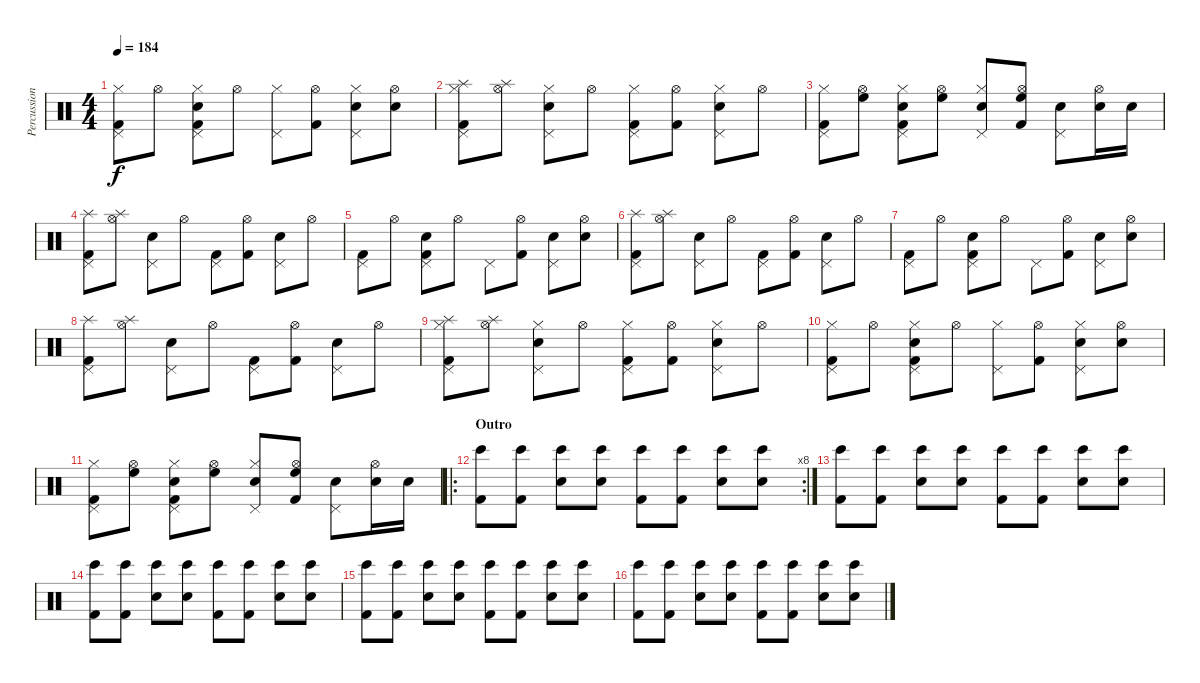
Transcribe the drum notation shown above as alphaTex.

\track ("Percussion" "Percussion") {instrument percussion}
\staff {score}
\articulation defaults
\ts (4 4)
\tempo 184
\clef neutral
\ks c
("Pedal Hi-Hat (hit)" "Hi-Hat (closed)" "Kick (hit) 2").8{dy f} "Hi-Hat (open)".8 ("Pedal Hi-Hat (hit)" "Hi-Hat (closed)" "Snare (hit) 2" "Kick (hit) 2").8 "Hi-Hat (open)".8 ("Pedal Hi-Hat (hit)" "Hi-Hat (closed)").8 ("Hi-Hat (open)" "Kick (hit) 2").8 ("Pedal Hi-Hat (hit)" "Hi-Hat (closed)" "Snare (hit) 2").8 ("Hi-Hat (open)" "Snare (hit) 2").8 |
("Pedal Hi-Hat (hit)" "Hi-Hat (closed)" "Splash (hit)" "Kick (hit) 2").8 ("Hi-Hat (open)" "Splash (hit)").8 ("Pedal Hi-Hat (hit)" "Hi-Hat (closed)" "Snare (hit) 2").8 "Hi-Hat (open)".8 ("Pedal Hi-Hat (hit)" "Hi-Hat (closed)" "Kick (hit) 2").8 ("Hi-Hat (open)" "Kick (hit) 2").8 ("Pedal Hi-Hat (hit)" "Hi-Hat (closed)" "Snare (hit) 2").8 "Hi-Hat (open)".8 |
("Pedal Hi-Hat (hit)" "Hi-Hat (closed)" "Kick (hit) 2").8 ("Hi-Hat (open)" "High Floor Tom (hit)").8 ("Pedal Hi-Hat (hit)" "Hi-Hat (closed)" "Snare (hit) 2" "Kick (hit) 2").8 ("Hi-Hat (open)" "High Floor Tom (hit)").8 ("Pedal Hi-Hat (hit)" "Hi-Hat (closed)" "Snare (hit) 2").8 ("Hi-Hat (open)" "High Floor Tom (hit)" "Kick (hit) 2").8 ("Pedal Hi-Hat (hit)" "Snare (hit) 2").8 ("Hi-Hat (open)" "Snare (hit) 2").16 "Snare (hit) 2".16 |
("Pedal Hi-Hat (hit)" "Splash (hit)" "Kick (hit) 2").8 ("Hi-Hat (open)" "Splash (hit)").8 ("Pedal Hi-Hat (hit)" "Snare (hit) 2").8 "Hi-Hat (open)".8 ("Pedal Hi-Hat (hit)" "Kick (hit) 2").8 ("Hi-Hat (open)" "Kick (hit) 2").8 ("Pedal Hi-Hat (hit)" "Snare (hit) 2").8 "Hi-Hat (open)".8 |
("Pedal Hi-Hat (hit)" "Kick (hit) 2").8 "Hi-Hat (open)".8 ("Pedal Hi-Hat (hit)" "Snare (hit) 2" "Kick (hit) 2").8 "Hi-Hat (open)".8 "Pedal Hi-Hat (hit)".8 ("Hi-Hat (open)" "Kick (hit) 2").8 ("Pedal Hi-Hat (hit)" "Snare (hit) 2").8 ("Hi-Hat (open)" "Snare (hit) 2").8 |
("Pedal Hi-Hat (hit)" "Splash (hit)" "Kick (hit) 2").8 ("Hi-Hat (open)" "Splash (hit)").8 ("Pedal Hi-Hat (hit)" "Snare (hit) 2").8 "Hi-Hat (open)".8 ("Pedal Hi-Hat (hit)" "Kick (hit) 2").8 ("Hi-Hat (open)" "Kick (hit) 2").8 ("Pedal Hi-Hat (hit)" "Snare (hit) 2").8 "Hi-Hat (open)".8 |
("Pedal Hi-Hat (hit)" "Kick (hit) 2").8 "Hi-Hat (open)".8 ("Pedal Hi-Hat (hit)" "Snare (hit) 2" "Kick (hit) 2").8 "Hi-Hat (open)".8 "Pedal Hi-Hat (hit)".8 ("Hi-Hat (open)" "Kick (hit) 2").8 ("Pedal Hi-Hat (hit)" "Snare (hit) 2").8 ("Hi-Hat (open)" "Snare (hit) 2").8 |
("Pedal Hi-Hat (hit)" "Splash (hit)" "Kick (hit) 2").8 ("Hi-Hat (open)" "Splash (hit)").8 ("Pedal Hi-Hat (hit)" "Snare (hit) 2").8 "Hi-Hat (open)".8 ("Pedal Hi-Hat (hit)" "Kick (hit) 2").8 ("Hi-Hat (open)" "Kick (hit) 2").8 ("Pedal Hi-Hat (hit)" "Snare (hit) 2").8 "Hi-Hat (open)".8 |
("Pedal Hi-Hat (hit)" "Hi-Hat (closed)" "Splash (hit)" "Kick (hit) 2").8 ("Hi-Hat (open)" "Splash (hit)").8 ("Pedal Hi-Hat (hit)" "Hi-Hat (closed)" "Snare (hit) 2").8 "Hi-Hat (open)".8 ("Pedal Hi-Hat (hit)" "Hi-Hat (closed)" "Kick (hit) 2").8 ("Hi-Hat (open)" "Kick (hit) 2").8 ("Pedal Hi-Hat (hit)" "Hi-Hat (closed)" "Snare (hit) 2").8 "Hi-Hat (open)".8 |
("Pedal Hi-Hat (hit)" "Hi-Hat (closed)" "Kick (hit) 2").8 "Hi-Hat (open)".8 ("Pedal Hi-Hat (hit)" "Hi-Hat (closed)" "Snare (hit) 2" "Kick (hit) 2").8 "Hi-Hat (open)".8 ("Pedal Hi-Hat (hit)" "Hi-Hat (closed)").8 ("Hi-Hat (open)" "Kick (hit) 2").8 ("Pedal Hi-Hat (hit)" "Hi-Hat (closed)" "Snare (hit) 2").8 ("Hi-Hat (open)" "Snare (hit) 2").8 |
("Pedal Hi-Hat (hit)" "Hi-Hat (closed)" "Kick (hit) 2").8 ("Hi-Hat (open)" "High Floor Tom (hit)").8 ("Pedal Hi-Hat (hit)" "Hi-Hat (closed)" "Snare (hit) 2" "Kick (hit) 2").8 ("Hi-Hat (open)" "High Floor Tom (hit)").8 ("Pedal Hi-Hat (hit)" "Hi-Hat (closed)" "Snare (hit) 2").8 ("Hi-Hat (open)" "High Floor Tom (hit)" "Kick (hit) 2").8 ("Pedal Hi-Hat (hit)" "Snare (hit) 2").8 ("Hi-Hat (open)" "Snare (hit) 2").16 "Snare (hit) 2".16 |
\ro
\rc 8
\section ("" "Outro")
("Bongo High (hit)" "Kick (hit) 2").8 ("Bongo High (hit)" "Kick (hit) 2").8 ("Bongo High (hit)" "Snare (hit) 2").8 ("Bongo High (hit)" "Snare (hit) 2").8 ("Bongo High (hit)" "Kick (hit) 2").8 ("Bongo High (hit)" "Kick (hit) 2").8 ("Bongo High (hit)" "Snare (hit) 2").8 ("Bongo High (hit)" "Snare (hit) 2").8 |
("Bongo High (hit)" "Kick (hit) 2").8 ("Bongo High (hit)" "Kick (hit) 2").8 ("Bongo High (hit)" "Snare (hit) 2").8 ("Bongo High (hit)" "Snare (hit) 2").8 ("Bongo High (hit)" "Kick (hit) 2").8 ("Bongo High (hit)" "Kick (hit) 2").8 ("Bongo High (hit)" "Snare (hit) 2").8 ("Bongo High (hit)" "Snare (hit) 2").8 |
("Bongo High (hit)" "Kick (hit) 2").8 ("Bongo High (hit)" "Kick (hit) 2").8 ("Bongo High (hit)" "Snare (hit) 2").8 ("Bongo High (hit)" "Snare (hit) 2").8 ("Bongo High (hit)" "Kick (hit) 2").8 ("Bongo High (hit)" "Kick (hit) 2").8 ("Bongo High (hit)" "Snare (hit) 2").8 ("Bongo High (hit)" "Snare (hit) 2").8 |
("Bongo High (hit)" "Kick (hit) 2").8 ("Bongo High (hit)" "Kick (hit) 2").8 ("Bongo High (hit)" "Snare (hit) 2").8 ("Bongo High (hit)" "Snare (hit) 2").8 ("Bongo High (hit)" "Kick (hit) 2").8 ("Bongo High (hit)" "Kick (hit) 2").8 ("Bongo High (hit)" "Snare (hit) 2").8 ("Bongo High (hit)" "Snare (hit) 2").8 |
("Bongo High (hit)" "Kick (hit) 2").8 ("Bongo High (hit)" "Kick (hit) 2").8 ("Bongo High (hit)" "Snare (hit) 2").8 ("Bongo High (hit)" "Snare (hit) 2").8 ("Bongo High (hit)" "Kick (hit) 2").8 ("Bongo High (hit)" "Kick (hit) 2").8 ("Bongo High (hit)" "Snare (hit) 2").8 ("Bongo High (hit)" "Snare (hit) 2").8
